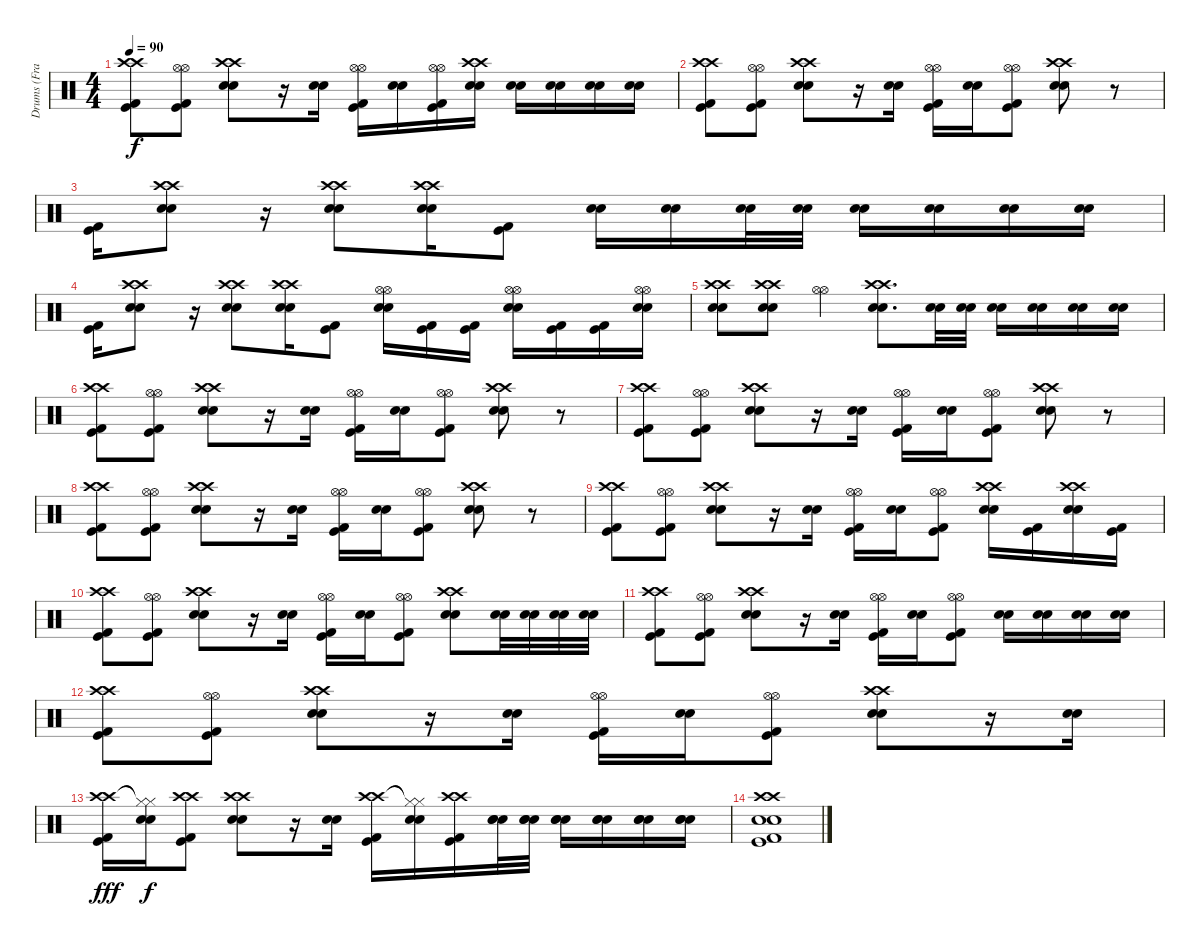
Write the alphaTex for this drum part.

\track ("Drums (Frank Ferrer)" "Drums (Fra") {instrument percussion}
\staff {score}
\articulation defaults
\ts (4 4)
\tempo 90
\clef neutral
\ks c
("Crash high (hit)" "Crash high (hit)" "Kick (hit)" "Kick (hit) 2").8{dy f} ("Hi-Hat (open)" "Hi-Hat (open)" "Kick (hit)" "Kick (hit) 2").8 ("Crash high (hit)" "Crash high (hit)" "Snare (hit) 2" "Snare (hit) 2").8 r.16 ("Snare (hit) 2" "Snare (hit) 2").16 ("Hi-Hat (open)" "Hi-Hat (open)" "Kick (hit)" "Kick (hit) 2").16 ("Snare (hit) 2" "Snare (hit) 2").16 ("Hi-Hat (open)" "Hi-Hat (open)" "Kick (hit)" "Kick (hit) 2").16 ("Crash high (hit)" "Crash high (hit)" "Snare (hit) 2" "Snare (hit) 2").16 ("Snare (hit) 2" "Snare (hit) 2").16 ("Snare (hit) 2" "Snare (hit) 2").16 ("Snare (hit) 2" "Snare (hit) 2").16 ("Snare (hit) 2" "Snare (hit) 2").16 |
("Crash high (hit)" "Crash high (hit)" "Kick (hit)" "Kick (hit) 2").8 ("Hi-Hat (open)" "Hi-Hat (open)" "Kick (hit)" "Kick (hit) 2").8 ("Crash high (hit)" "Crash high (hit)" "Snare (hit) 2" "Snare (hit) 2").8 r.16 ("Snare (hit) 2" "Snare (hit) 2").16 ("Hi-Hat (open)" "Hi-Hat (open)" "Kick (hit)" "Kick (hit) 2").16 ("Snare (hit) 2" "Snare (hit) 2").16 ("Hi-Hat (open)" "Hi-Hat (open)" "Kick (hit)" "Kick (hit) 2").8 ("Crash high (hit)" "Crash high (hit)" "Snare (hit) 2" "Snare (hit) 2").8 r.8 |
("Kick (hit)" "Kick (hit) 2").16 ("Crash high (hit)" "Crash high (hit)" "Snare (hit) 2" "Snare (hit) 2").8 r.16 ("Crash high (hit)" "Crash high (hit)" "Snare (hit) 2" "Snare (hit) 2").8 ("Crash high (hit)" "Crash high (hit)" "Snare (hit) 2" "Snare (hit) 2").16 ("Kick (hit)" "Kick (hit) 2").8 ("Snare (hit) 2" "Snare (hit) 2").16 ("Snare (hit) 2" "Snare (hit) 2").16 ("Snare (hit) 2" "Snare (hit) 2").32 ("Snare (hit) 2" "Snare (hit) 2").32 ("Snare (hit) 2" "Snare (hit) 2").16 ("Snare (hit) 2" "Snare (hit) 2").16 ("Snare (hit) 2" "Snare (hit) 2").16 ("Snare (hit) 2" "Snare (hit) 2").16 |
("Kick (hit)" "Kick (hit) 2").16 ("Crash high (hit)" "Crash high (hit)" "Snare (hit) 2" "Snare (hit) 2").8 r.16 ("Crash high (hit)" "Crash high (hit)" "Snare (hit) 2" "Snare (hit) 2").8 ("Crash high (hit)" "Crash high (hit)" "Snare (hit) 2" "Snare (hit) 2").16 ("Kick (hit)" "Kick (hit) 2").8 ("Hi-Hat (open)" "Hi-Hat (open)" "Snare (hit) 2" "Snare (hit) 2").16 ("Kick (hit)" "Kick (hit) 2").16 ("Kick (hit)" "Kick (hit) 2").16 ("Hi-Hat (open)" "Hi-Hat (open)" "Snare (hit) 2" "Snare (hit) 2").16 ("Kick (hit)" "Kick (hit) 2").16 ("Kick (hit)" "Kick (hit) 2").16 ("Hi-Hat (open)" "Hi-Hat (open)" "Snare (hit) 2" "Snare (hit) 2").16 |
("Crash high (hit)" "Crash high (hit)" "Snare (hit) 2" "Snare (hit) 2").8 ("Crash high (hit)" "Crash high (hit)" "Snare (hit) 2" "Snare (hit) 2").8 ("Hi-Hat (open)" "Hi-Hat (open)").4 ("Crash high (hit)" "Crash high (hit)" "Snare (hit) 2" "Snare (hit) 2").8{d} ("Snare (hit) 2" "Snare (hit) 2").32 ("Snare (hit) 2" "Snare (hit) 2").32 ("Snare (hit) 2" "Snare (hit) 2").16 ("Snare (hit) 2" "Snare (hit) 2").16 ("Snare (hit) 2" "Snare (hit) 2").16 ("Snare (hit) 2" "Snare (hit) 2").16 |
("Crash high (hit)" "Crash high (hit)" "Kick (hit)" "Kick (hit) 2").8 ("Hi-Hat (open)" "Hi-Hat (open)" "Kick (hit)" "Kick (hit) 2").8 ("Crash high (hit)" "Crash high (hit)" "Snare (hit) 2" "Snare (hit) 2").8 r.16 ("Snare (hit) 2" "Snare (hit) 2").16 ("Hi-Hat (open)" "Hi-Hat (open)" "Kick (hit)" "Kick (hit) 2").16 ("Snare (hit) 2" "Snare (hit) 2").16 ("Hi-Hat (open)" "Hi-Hat (open)" "Kick (hit)" "Kick (hit) 2").8 ("Crash high (hit)" "Crash high (hit)" "Snare (hit) 2" "Snare (hit) 2").8 r.8 |
("Crash high (hit)" "Crash high (hit)" "Kick (hit)" "Kick (hit) 2").8 ("Hi-Hat (open)" "Hi-Hat (open)" "Kick (hit)" "Kick (hit) 2").8 ("Crash high (hit)" "Crash high (hit)" "Snare (hit) 2" "Snare (hit) 2").8 r.16 ("Snare (hit) 2" "Snare (hit) 2").16 ("Hi-Hat (open)" "Hi-Hat (open)" "Kick (hit)" "Kick (hit) 2").16 ("Snare (hit) 2" "Snare (hit) 2").16 ("Hi-Hat (open)" "Hi-Hat (open)" "Kick (hit)" "Kick (hit) 2").8 ("Crash high (hit)" "Crash high (hit)" "Snare (hit) 2" "Snare (hit) 2").8 r.8 |
("Crash high (hit)" "Crash high (hit)" "Kick (hit)" "Kick (hit) 2").8 ("Hi-Hat (open)" "Hi-Hat (open)" "Kick (hit)" "Kick (hit) 2").8 ("Crash high (hit)" "Crash high (hit)" "Snare (hit) 2" "Snare (hit) 2").8 r.16 ("Snare (hit) 2" "Snare (hit) 2").16 ("Hi-Hat (open)" "Hi-Hat (open)" "Kick (hit)" "Kick (hit) 2").16 ("Snare (hit) 2" "Snare (hit) 2").16 ("Hi-Hat (open)" "Hi-Hat (open)" "Kick (hit)" "Kick (hit) 2").8 ("Crash high (hit)" "Crash high (hit)" "Snare (hit) 2" "Snare (hit) 2").8 r.8 |
("Crash high (hit)" "Crash high (hit)" "Kick (hit)" "Kick (hit) 2").8 ("Hi-Hat (open)" "Hi-Hat (open)" "Kick (hit)" "Kick (hit) 2").8 ("Crash high (hit)" "Crash high (hit)" "Snare (hit) 2" "Snare (hit) 2").8 r.16 ("Snare (hit) 2" "Snare (hit) 2").16 ("Hi-Hat (open)" "Hi-Hat (open)" "Kick (hit)" "Kick (hit) 2").16 ("Snare (hit) 2" "Snare (hit) 2").16 ("Hi-Hat (open)" "Hi-Hat (open)" "Kick (hit)" "Kick (hit) 2").8 ("Crash high (hit)" "Crash high (hit)" "Snare (hit) 2" "Snare (hit) 2").16 ("Kick (hit)" "Kick (hit) 2").16 ("Crash high (hit)" "Crash high (hit)" "Snare (hit) 2" "Snare (hit) 2").16 ("Kick (hit)" "Kick (hit) 2").16 |
("Crash high (hit)" "Crash high (hit)" "Kick (hit)" "Kick (hit) 2").8 ("Hi-Hat (open)" "Hi-Hat (open)" "Kick (hit)" "Kick (hit) 2").8 ("Crash high (hit)" "Crash high (hit)" "Snare (hit) 2" "Snare (hit) 2").8 r.16 ("Snare (hit) 2" "Snare (hit) 2").16 ("Hi-Hat (open)" "Hi-Hat (open)" "Kick (hit)" "Kick (hit) 2").16 ("Snare (hit) 2" "Snare (hit) 2").16 ("Hi-Hat (open)" "Hi-Hat (open)" "Kick (hit)" "Kick (hit) 2").8 ("Crash high (hit)" "Crash high (hit)" "Snare (hit) 2" "Snare (hit) 2").8 ("Snare (hit) 2" "Snare (hit) 2").32 ("Snare (hit) 2" "Snare (hit) 2").32 ("Snare (hit) 2" "Snare (hit) 2").32 ("Snare (hit) 2" "Snare (hit) 2").32 |
("Crash high (hit)" "Crash high (hit)" "Kick (hit)" "Kick (hit) 2").8 ("Hi-Hat (open)" "Hi-Hat (open)" "Kick (hit)" "Kick (hit) 2").8 ("Crash high (hit)" "Crash high (hit)" "Snare (hit) 2" "Snare (hit) 2").8 r.16 ("Snare (hit) 2" "Snare (hit) 2").16 ("Hi-Hat (open)" "Hi-Hat (open)" "Kick (hit)" "Kick (hit) 2").16 ("Snare (hit) 2" "Snare (hit) 2").16 ("Hi-Hat (open)" "Hi-Hat (open)" "Kick (hit)" "Kick (hit) 2").8 ("Snare (hit) 2" "Snare (hit) 2").16 ("Snare (hit) 2" "Snare (hit) 2").16 ("Snare (hit) 2" "Snare (hit) 2").16 ("Snare (hit) 2" "Snare (hit) 2").16 |
("Crash high (hit)" "Crash high (hit)" "Kick (hit)" "Kick (hit) 2").8 ("Hi-Hat (open)" "Hi-Hat (open)" "Kick (hit)" "Kick (hit) 2").8 ("Crash high (hit)" "Crash high (hit)" "Snare (hit) 2" "Snare (hit) 2").8 r.16 ("Snare (hit) 2" "Snare (hit) 2").16 ("Hi-Hat (open)" "Hi-Hat (open)" "Kick (hit)" "Kick (hit) 2").16 ("Snare (hit) 2" "Snare (hit) 2").16 ("Hi-Hat (open)" "Hi-Hat (open)" "Kick (hit)" "Kick (hit) 2").8 ("Crash high (hit)" "Crash high (hit)" "Snare (hit) 2" "Snare (hit) 2").8 r.16 ("Snare (hit) 2" "Snare (hit) 2").16 |
("Crash high (hit)" "Crash high (hit)" "Kick (hit)" "Kick (hit) 2").16{dy fff} ("Hi-Hat (closed)"{t} "Hi-Hat (closed)"{t} "Snare (hit) 2" "Snare (hit) 2").16{dy f} ("Crash high (hit)" "Crash high (hit)" "Kick (hit)" "Kick (hit) 2").8 ("Crash high (hit)" "Crash high (hit)" "Snare (hit) 2" "Snare (hit) 2").8 r.16 ("Snare (hit) 2" "Snare (hit) 2").16 ("Crash high (hit)" "Crash high (hit)" "Kick (hit)" "Kick (hit) 2").16 ("Hi-Hat (closed)"{t} "Hi-Hat (closed)"{t} "Snare (hit) 2" "Snare (hit) 2").16 ("Crash high (hit)" "Crash high (hit)" "Kick (hit)" "Kick (hit) 2").16 ("Snare (hit) 2" "Snare (hit) 2" "Snare (hit) 2").32 ("Snare (hit) 2" "Snare (hit) 2" "Snare (hit) 2").32 ("Snare (hit) 2" "Snare (hit) 2" "Snare (hit) 2").16 ("Snare (hit) 2" "Snare (hit) 2" "Snare (hit) 2").16 ("Snare (hit) 2" "Snare (hit) 2" "Snare (hit) 2").16 ("Snare (hit) 2" "Snare (hit) 2" "Snare (hit) 2").16 |
("Crash high (hit)" "Crash high (hit)" "Snare (hit) 2" "Snare (hit) 2" "Kick (hit)" "Kick (hit) 2").1
